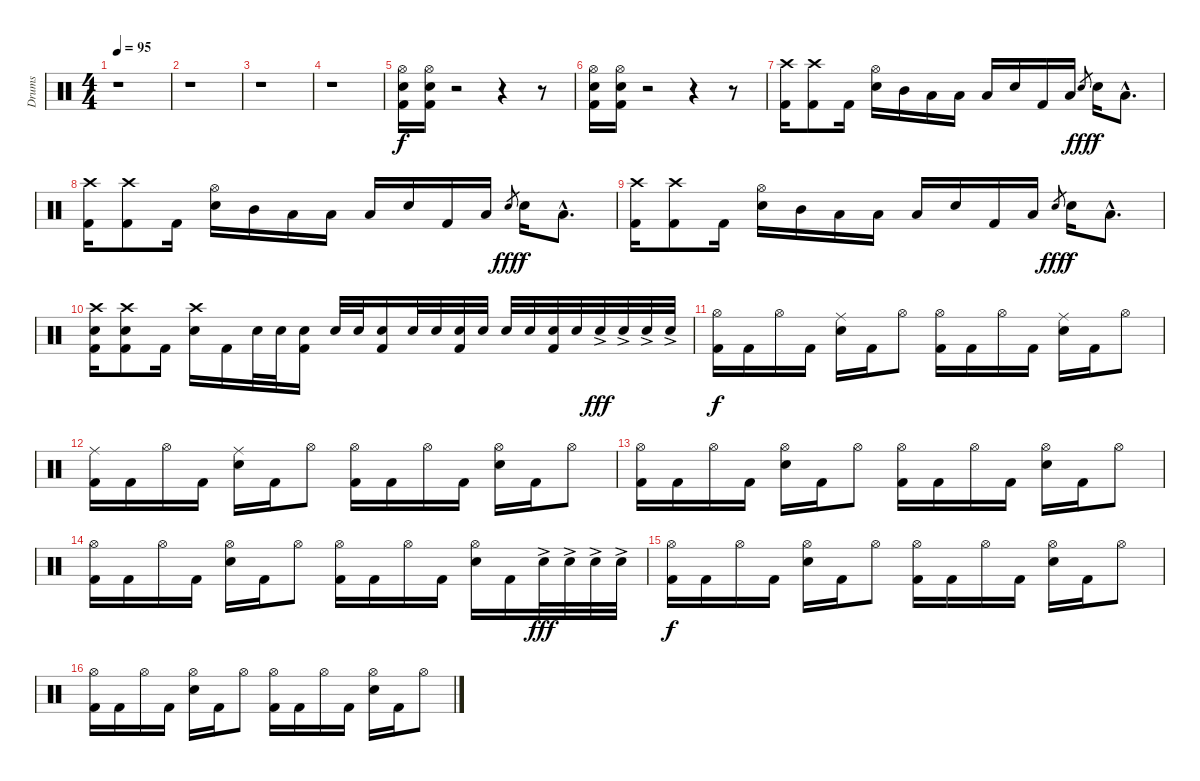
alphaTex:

\track ("Drums" "Drums") {instrument percussion}
\staff {score}
\articulation defaults
\ts (4 4)
\tempo 95
\clef neutral
\ks c
r.1{dy f} |
r.1 |
r.1 |
r.1 |
("Hi-Hat (open)" "Electric Snare (hit)" "Kick (hit) 2").16 ("Hi-Hat (open)" "Electric Snare (hit)" "Kick (hit) 2").16 r.2 r.4 r.8 |
("Hi-Hat (open)" "Electric Snare (hit)" "Kick (hit) 2").16 ("Hi-Hat (open)" "Electric Snare (hit)" "Kick (hit) 2").16 r.2 r.4 r.8 |
("Crash high (hit)" "Kick (hit) 2").16 ("Crash high (hit)" "Kick (hit) 2").8 "Kick (hit) 2".16 ("Hi-Hat (open)" "Electric Snare (hit)").16 "Mid Tom (hit)".16 "Low Tom (hit)".16 "Low Floor Tom (hit)".16 "Low Floor Tom (hit)".16 "Electric Snare (hit)".16 "Kick (hit) 2".16 "Low Floor Tom (hit)".16 "Electric Snare (hit)".8{gr dy fff} "Electric Snare (hit)".16{dy f} "Low Floor Tom (hit)"{hac}.8{d} |
("Crash high (hit)" "Kick (hit) 2").16 ("Crash high (hit)" "Kick (hit) 2").8 "Kick (hit) 2".16 ("Hi-Hat (open)" "Electric Snare (hit)").16 "Mid Tom (hit)".16 "Low Tom (hit)".16 "Low Floor Tom (hit)".16 "Low Floor Tom (hit)".16 "Electric Snare (hit)".16 "Kick (hit) 2".16 "Low Floor Tom (hit)".16 "Electric Snare (hit)".8{gr dy fff} "Electric Snare (hit)".16{dy f} "Low Floor Tom (hit)"{hac}.8{d} |
("Crash high (hit)" "Kick (hit) 2").16 ("Crash high (hit)" "Kick (hit) 2").8 "Kick (hit) 2".16 ("Hi-Hat (open)" "Electric Snare (hit)").16 "Mid Tom (hit)".16 "Low Tom (hit)".16 "Low Floor Tom (hit)".16 "Low Floor Tom (hit)".16 "Electric Snare (hit)".16 "Kick (hit) 2".16 "Low Floor Tom (hit)".16 "Electric Snare (hit)".8{gr dy fff} "Electric Snare (hit)".16{dy f} "Low Floor Tom (hit)"{hac}.8{d} |
("Crash high (hit)" "Electric Snare (hit)" "Kick (hit) 2").16 ("Crash high (hit)" "Electric Snare (hit)" "Kick (hit) 2").8 "Kick (hit) 2".16 ("Crash high (hit)" "Electric Snare (hit)").16 "Kick (hit) 2".16 "Electric Snare (hit)".32 "Electric Snare (hit)".32 ("Electric Snare (hit)" "Kick (hit) 2").16 "Electric Snare (hit)".32 "Electric Snare (hit)".32 ("Electric Snare (hit)" "Kick (hit) 2").16 "Electric Snare (hit)".32 "Electric Snare (hit)".32 ("Electric Snare (hit)" "Kick (hit) 2").32 "Electric Snare (hit)".32 "Electric Snare (hit)".32 "Electric Snare (hit)".32 ("Electric Snare (hit)" "Kick (hit) 2").32 "Electric Snare (hit)".32 "Electric Snare (hit)"{ac}.32{dy fff} "Electric Snare (hit)"{ac}.32 "Electric Snare (hit)"{ac}.32 "Electric Snare (hit)"{ac}.32 |
("Hi-Hat (open)" "Kick (hit) 2").16{dy f} "Kick (hit) 2".16 "Hi-Hat (open)".16 "Kick (hit) 2".16 ("Ride (middle)" "Electric Snare (hit)").16 "Kick (hit) 2".16 "Hi-Hat (open)".8 ("Hi-Hat (open)" "Kick (hit) 2").16 "Kick (hit) 2".16 "Hi-Hat (open)".16 "Kick (hit) 2".16 ("Ride (middle)" "Electric Snare (hit)").16 "Kick (hit) 2".16 "Hi-Hat (open)".8 |
("Ride (middle)" "Kick (hit) 2").16 "Kick (hit) 2".16 "Hi-Hat (open)".16 "Kick (hit) 2".16 ("Ride (middle)" "Electric Snare (hit)").16 "Kick (hit) 2".16 "Hi-Hat (open)".8 ("Hi-Hat (open)" "Kick (hit) 2").16 "Kick (hit) 2".16 "Hi-Hat (open)".16 "Kick (hit) 2".16 ("Hi-Hat (open)" "Electric Snare (hit)").16 "Kick (hit) 2".16 "Hi-Hat (open)".8 |
("Hi-Hat (open)" "Kick (hit) 2").16 "Kick (hit) 2".16 "Hi-Hat (open)".16 "Kick (hit) 2".16 ("Hi-Hat (open)" "Electric Snare (hit)").16 "Kick (hit) 2".16 "Hi-Hat (open)".8 ("Hi-Hat (open)" "Kick (hit) 2").16 "Kick (hit) 2".16 "Hi-Hat (open)".16 "Kick (hit) 2".16 ("Hi-Hat (open)" "Electric Snare (hit)").16 "Kick (hit) 2".16 "Hi-Hat (open)".8 |
("Hi-Hat (open)" "Kick (hit) 2").16 "Kick (hit) 2".16 "Hi-Hat (open)".16 "Kick (hit) 2".16 ("Hi-Hat (open)" "Electric Snare (hit)").16 "Kick (hit) 2".16 "Hi-Hat (open)".8 ("Hi-Hat (open)" "Kick (hit) 2").16 "Kick (hit) 2".16 "Hi-Hat (open)".16 "Kick (hit) 2".16 ("Hi-Hat (open)" "Electric Snare (hit)").16 "Kick (hit) 2".16 "Electric Snare (hit)"{ac}.32{dy fff} "Electric Snare (hit)"{ac}.32 "Electric Snare (hit)"{ac}.32 "Electric Snare (hit)"{ac}.32 |
("Hi-Hat (open)" "Kick (hit) 2").16{dy f} "Kick (hit) 2".16 "Hi-Hat (open)".16 "Kick (hit) 2".16 ("Hi-Hat (open)" "Electric Snare (hit)").16 "Kick (hit) 2".16 "Hi-Hat (open)".8 ("Hi-Hat (open)" "Kick (hit) 2").16 "Kick (hit) 2".16 "Hi-Hat (open)".16 "Kick (hit) 2".16 ("Hi-Hat (open)" "Electric Snare (hit)").16 "Kick (hit) 2".16 "Hi-Hat (open)".8 |
("Hi-Hat (open)" "Kick (hit) 2").16 "Kick (hit) 2".16 "Hi-Hat (open)".16 "Kick (hit) 2".16 ("Hi-Hat (open)" "Electric Snare (hit)").16 "Kick (hit) 2".16 "Hi-Hat (open)".8 ("Hi-Hat (open)" "Kick (hit) 2").16 "Kick (hit) 2".16 "Hi-Hat (open)".16 "Kick (hit) 2".16 ("Hi-Hat (open)" "Electric Snare (hit)").16 "Kick (hit) 2".16 "Hi-Hat (open)".8
